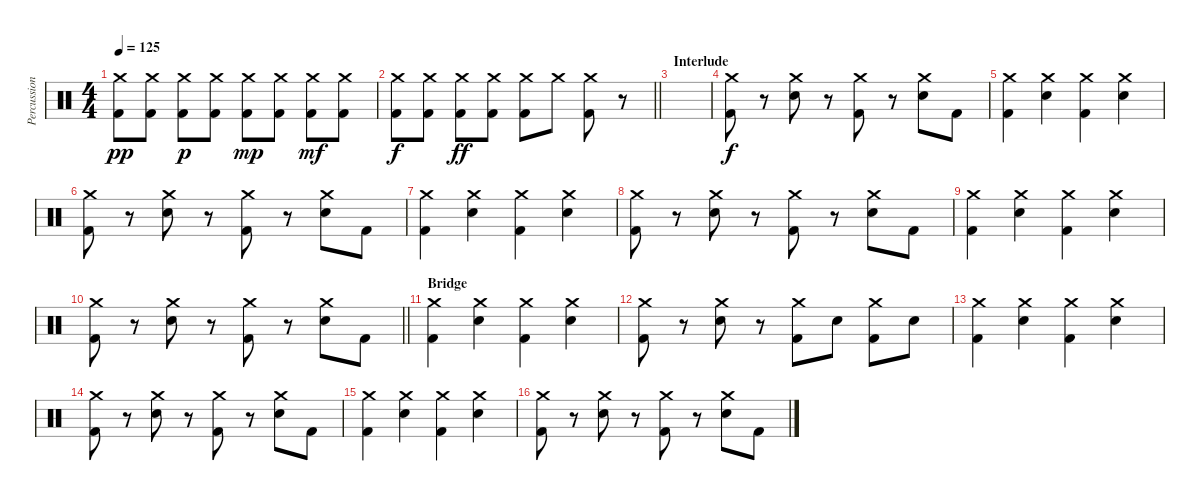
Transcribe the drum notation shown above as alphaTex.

\track ("Percussion" "Percussion") {instrument percussion}
\staff {score}
\articulation defaults
\ts (4 4)
\tempo 125
\clef neutral
\ks c
("Crash medium (hit)" "Kick (hit) 2").8{dy pp} ("Crash medium (hit)" "Kick (hit) 2").8 ("Crash medium (hit)" "Kick (hit) 2").8{dy p} ("Crash medium (hit)" "Kick (hit) 2").8 ("Crash medium (hit)" "Kick (hit) 2").8{dy mp} ("Crash medium (hit)" "Kick (hit) 2").8 ("Crash medium (hit)" "Kick (hit) 2").8{dy mf} ("Crash medium (hit)" "Kick (hit) 2").8 |
\barLineRight lightlight
("Crash medium (hit)" "Kick (hit) 2").8{dy f} ("Crash medium (hit)" "Kick (hit) 2").8 ("Crash medium (hit)" "Kick (hit) 2").8{dy ff} ("Crash medium (hit)" "Kick (hit) 2").8 ("Crash medium (hit)" "Kick (hit) 2").8 "Crash medium (hit)".8 ("Crash medium (hit)" "Kick (hit) 2").8 r.8{volume 0} |
\section ("" "Interlude")
|
("Crash medium (hit)" "Kick (hit) 2").8{dy f volume 13} r.8 ("Crash medium (hit)" "Snare (hit) 2").8 r.8 ("Crash medium (hit)" "Kick (hit) 2").8 r.8 ("Crash medium (hit)" "Snare (hit) 2").8 "Kick (hit) 2".8 |
("Crash medium (hit)" "Kick (hit) 2").4 ("Crash medium (hit)" "Snare (hit) 2").4 ("Crash medium (hit)" "Kick (hit) 2").4 ("Crash medium (hit)" "Snare (hit) 2").4 |
("Crash medium (hit)" "Kick (hit) 2").8 r.8 ("Crash medium (hit)" "Snare (hit) 2").8 r.8 ("Crash medium (hit)" "Kick (hit) 2").8 r.8 ("Crash medium (hit)" "Snare (hit) 2").8 "Kick (hit) 2".8 |
("Crash medium (hit)" "Kick (hit) 2").4 ("Crash medium (hit)" "Snare (hit) 2").4 ("Crash medium (hit)" "Kick (hit) 2").4 ("Crash medium (hit)" "Snare (hit) 2").4 |
("Crash medium (hit)" "Kick (hit) 2").8 r.8 ("Crash medium (hit)" "Snare (hit) 2").8 r.8 ("Crash medium (hit)" "Kick (hit) 2").8 r.8 ("Crash medium (hit)" "Snare (hit) 2").8 "Kick (hit) 2".8 |
("Crash medium (hit)" "Kick (hit) 2").4 ("Crash medium (hit)" "Snare (hit) 2").4 ("Crash medium (hit)" "Kick (hit) 2").4 ("Crash medium (hit)" "Snare (hit) 2").4 |
\barLineRight lightlight
("Crash medium (hit)" "Kick (hit) 2").8 r.8 ("Crash medium (hit)" "Snare (hit) 2").8 r.8 ("Crash medium (hit)" "Kick (hit) 2").8 r.8 ("Crash medium (hit)" "Snare (hit) 2").8 "Kick (hit) 2".8 |
\section ("" "Bridge")
("Crash medium (hit)" "Kick (hit) 2").4 ("Crash medium (hit)" "Snare (hit) 2").4 ("Crash medium (hit)" "Kick (hit) 2").4 ("Crash medium (hit)" "Snare (hit) 2").4 |
("Crash medium (hit)" "Kick (hit) 2").8 r.8 ("Crash medium (hit)" "Snare (hit) 2").8 r.8 ("Crash medium (hit)" "Kick (hit) 2").8 "Snare (hit) 2".8 ("Crash medium (hit)" "Kick (hit) 2").8 "Snare (hit) 2".8 |
("Crash medium (hit)" "Kick (hit) 2").4 ("Crash medium (hit)" "Snare (hit) 2").4 ("Crash medium (hit)" "Kick (hit) 2").4 ("Crash medium (hit)" "Snare (hit) 2").4 |
("Crash medium (hit)" "Kick (hit) 2").8 r.8 ("Crash medium (hit)" "Snare (hit) 2").8 r.8 ("Crash medium (hit)" "Kick (hit) 2").8 r.8 ("Crash medium (hit)" "Snare (hit) 2").8 "Kick (hit) 2".8 |
("Crash medium (hit)" "Kick (hit) 2").4 ("Crash medium (hit)" "Snare (hit) 2").4 ("Crash medium (hit)" "Kick (hit) 2").4 ("Crash medium (hit)" "Snare (hit) 2").4 |
("Crash medium (hit)" "Kick (hit) 2").8 r.8 ("Crash medium (hit)" "Snare (hit) 2").8 r.8 ("Crash medium (hit)" "Kick (hit) 2").8 r.8 ("Crash medium (hit)" "Snare (hit) 2").8 "Kick (hit) 2".8
